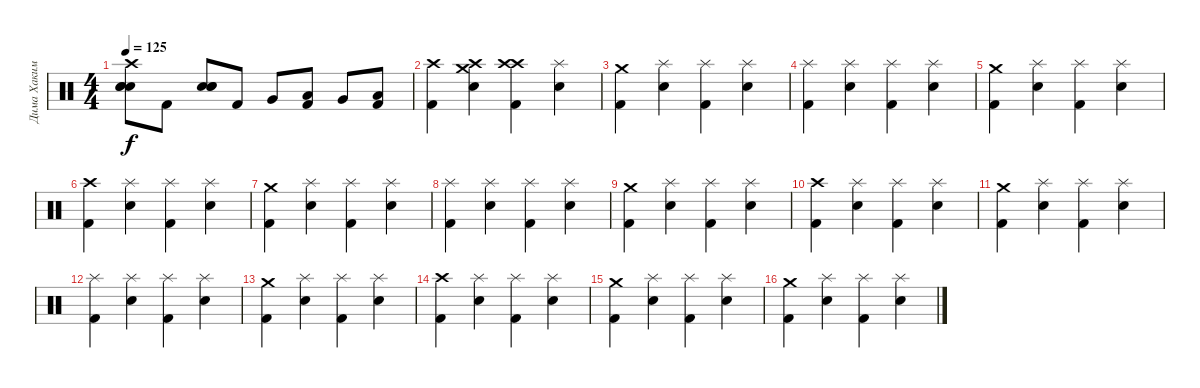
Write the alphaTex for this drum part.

\track ("Дима Хакимов" "Дима Хаким") {instrument percussion}
\staff {score}
\articulation defaults
\ts (4 4)
\tempo 125
\clef neutral
\ks c
("Crash high (hit)" "Electric Snare (hit)" "Snare (hit) 2" "Hand Clap (hit)").8{dy f} "Kick (hit) 2".8 ("Electric Snare (hit)" "Snare (hit) 2" "Hand Clap (hit)").8 "Kick (hit) 2".8 "Very Low Tom (hit)".8 ("Low Floor Tom (hit)" "Kick (hit) 2").8 "Very Low Tom (hit)".8 ("Low Floor Tom (hit)" "Kick (hit) 2").8 |
("Crash high (hit)" "Kick (hit) 2").4 ("Crash high (hit)" "Crash medium (hit)" "Electric Snare (hit)").4 ("Crash high (hit)" "Crash high (hit)" "Kick (hit) 2").4 ("Splash (hit)" "Electric Snare (hit)").4 |
("Crash medium (hit)" "Kick (hit) 2").4 ("Splash (hit)" "Electric Snare (hit)").4 ("Splash (hit)" "Kick (hit) 2").4 ("Splash (hit)" "Electric Snare (hit)").4 |
("Splash (hit)" "Kick (hit) 2").4 ("Splash (hit)" "Electric Snare (hit)").4 ("Splash (hit)" "Kick (hit) 2").4 ("Splash (hit)" "Electric Snare (hit)").4 |
("Crash medium (hit)" "Kick (hit) 2").4 ("Splash (hit)" "Electric Snare (hit)").4 ("Splash (hit)" "Kick (hit) 2").4 ("Splash (hit)" "Electric Snare (hit)").4 |
("Crash high (hit)" "Kick (hit) 2").4 ("Splash (hit)" "Electric Snare (hit)").4 ("Splash (hit)" "Kick (hit) 2").4 ("Splash (hit)" "Electric Snare (hit)").4 |
("Crash medium (hit)" "Kick (hit) 2").4 ("Splash (hit)" "Electric Snare (hit)").4 ("Splash (hit)" "Kick (hit) 2").4 ("Splash (hit)" "Electric Snare (hit)").4 |
("Splash (hit)" "Kick (hit) 2").4 ("Splash (hit)" "Electric Snare (hit)").4 ("Splash (hit)" "Kick (hit) 2").4 ("Splash (hit)" "Electric Snare (hit)").4 |
("Crash medium (hit)" "Kick (hit) 2").4 ("Splash (hit)" "Electric Snare (hit)").4 ("Splash (hit)" "Kick (hit) 2").4 ("Splash (hit)" "Electric Snare (hit)").4 |
("Crash high (hit)" "Kick (hit) 2").4 ("Splash (hit)" "Electric Snare (hit)").4 ("Splash (hit)" "Kick (hit) 2").4 ("Splash (hit)" "Electric Snare (hit)").4 |
("Crash medium (hit)" "Kick (hit) 2").4 ("Splash (hit)" "Electric Snare (hit)").4 ("Splash (hit)" "Kick (hit) 2").4 ("Splash (hit)" "Electric Snare (hit)").4 |
("Splash (hit)" "Kick (hit) 2").4 ("Splash (hit)" "Electric Snare (hit)").4 ("Splash (hit)" "Kick (hit) 2").4 ("Splash (hit)" "Electric Snare (hit)").4 |
("Crash medium (hit)" "Kick (hit) 2").4 ("Splash (hit)" "Electric Snare (hit)").4 ("Splash (hit)" "Kick (hit) 2").4 ("Splash (hit)" "Electric Snare (hit)").4 |
("Crash high (hit)" "Kick (hit) 2").4 ("Splash (hit)" "Electric Snare (hit)").4 ("Splash (hit)" "Kick (hit) 2").4 ("Splash (hit)" "Electric Snare (hit)").4 |
("Crash medium (hit)" "Kick (hit) 2").4 ("Splash (hit)" "Electric Snare (hit)").4 ("Splash (hit)" "Kick (hit) 2").4 ("Splash (hit)" "Electric Snare (hit)").4 |
("Crash medium (hit)" "Kick (hit) 2").4 ("Splash (hit)" "Electric Snare (hit)").4 ("Splash (hit)" "Kick (hit) 2").4 ("Splash (hit)" "Electric Snare (hit)").4
